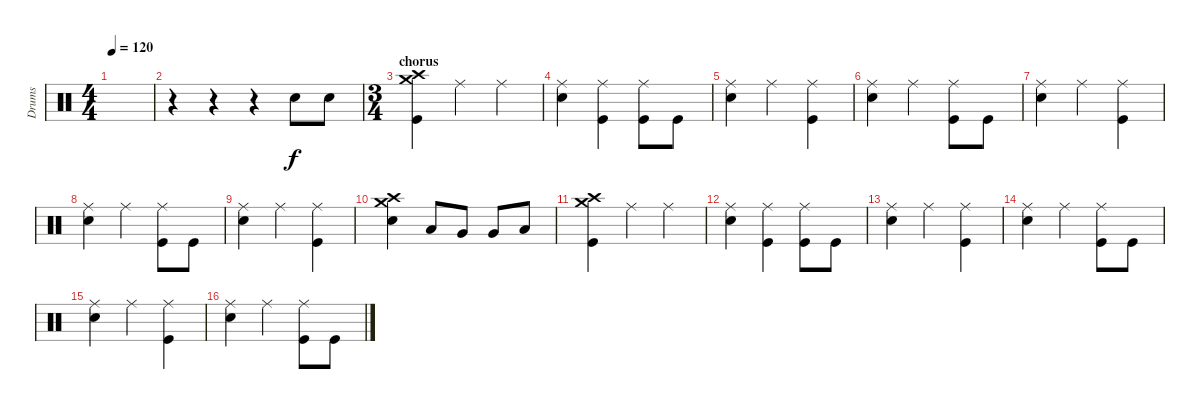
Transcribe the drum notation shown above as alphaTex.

\track ("Drums" "Drums") {instrument percussion}
\staff {score}
\articulation defaults
\ts (4 4)
\tempo 120
\clef neutral
\ks c
|
r.4 r.4 r.4 "Snare (hit) 2".8 "Snare (hit) 2".8 |
\ts (3 4)
\section ("" "chorus")
("Crash medium (hit)" "Crash high (hit)" "Kick (hit)").4 "Ride (middle)".4 "Ride (middle)".4 |
("Ride (middle)" "Snare (hit) 2").4 ("Ride (middle)" "Kick (hit)").4 ("Ride (middle)" "Kick (hit)").8 "Kick (hit)".8 |
("Ride (middle)" "Snare (hit) 2").4 "Ride (middle)".4 ("Ride (middle)" "Kick (hit)").4 |
("Ride (middle)" "Snare (hit) 2").4 "Ride (middle)".4 ("Ride (middle)" "Kick (hit)").8 "Kick (hit)".8 |
("Ride (middle)" "Snare (hit) 2").4 "Ride (middle)".4 ("Ride (middle)" "Kick (hit)").4 |
("Ride (middle)" "Snare (hit) 2").4 "Ride (middle)".4 ("Ride (middle)" "Kick (hit)").8 "Kick (hit)".8 |
("Ride (middle)" "Snare (hit) 2").4 "Ride (middle)".4 ("Ride (middle)" "Kick (hit)").4 |
("Crash medium (hit)" "Crash high (hit)" "Snare (hit) 2").4 "Low Tom (hit)".8 "Very Low Tom (hit)".8 "Very Low Tom (hit)".8 "Low Floor Tom (hit)".8 |
("Crash medium (hit)" "Crash high (hit)" "Kick (hit)").4 "Ride (middle)".4 "Ride (middle)".4 |
("Ride (middle)" "Snare (hit) 2").4 ("Ride (middle)" "Kick (hit)").4 ("Ride (middle)" "Kick (hit)").8 "Kick (hit)".8 |
("Ride (middle)" "Snare (hit) 2").4 "Ride (middle)".4 ("Ride (middle)" "Kick (hit)").4 |
("Ride (middle)" "Snare (hit) 2").4 "Ride (middle)".4 ("Ride (middle)" "Kick (hit)").8 "Kick (hit)".8 |
("Ride (middle)" "Snare (hit) 2").4 "Ride (middle)".4 ("Ride (middle)" "Kick (hit)").4 |
("Ride (middle)" "Snare (hit) 2").4 "Ride (middle)".4 ("Ride (middle)" "Kick (hit)").8 "Kick (hit)".8
